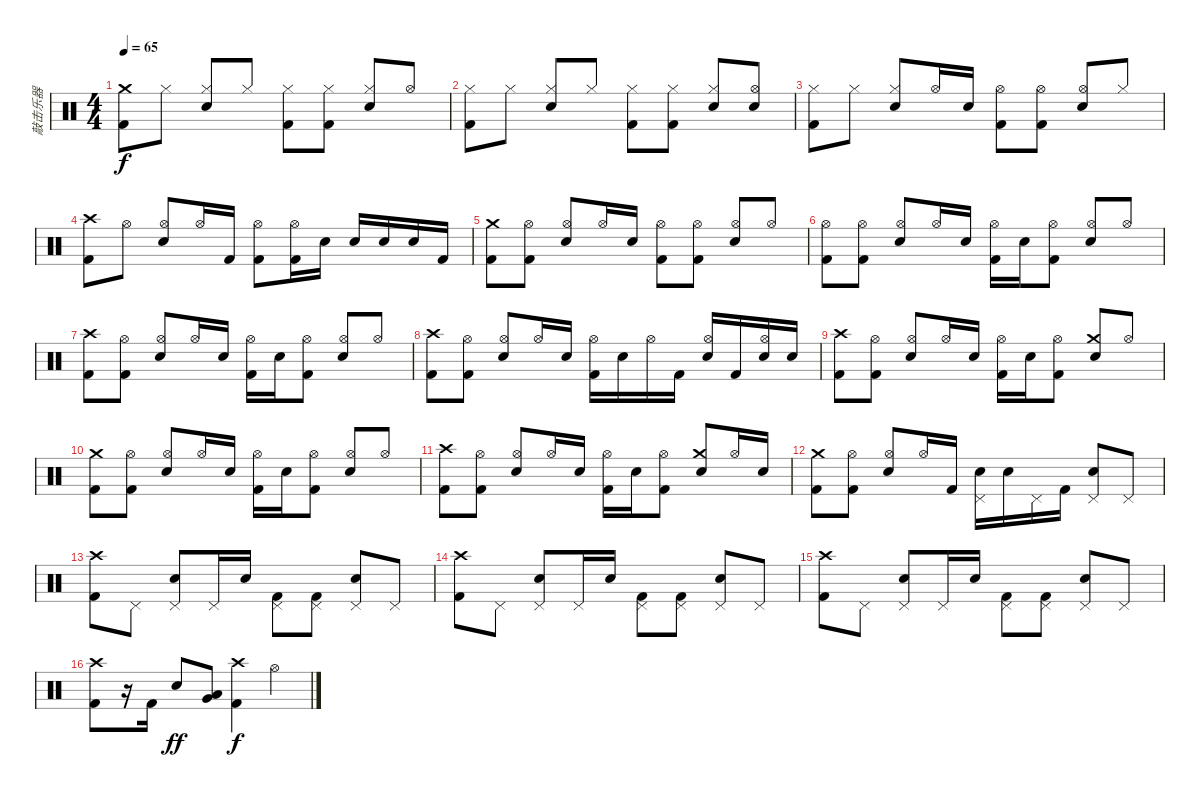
\track ("敲击乐器" "敲击乐器") {instrument percussion}
\staff {score}
\articulation defaults
\ts (4 4)
\tempo 65
\clef neutral
\ks c
("Crash medium (hit)" "Kick (hit) 2").8{dy f beam Down} "Hi-Hat (closed)".8{beam Down} ("Hi-Hat (closed)" "Electric Snare (hit)").8{beam Up} "Hi-Hat (closed)".8{beam Up} ("Hi-Hat (closed)" "Kick (hit) 2").8{beam Down} ("Hi-Hat (closed)" "Kick (hit) 2").8{beam Down} ("Hi-Hat (closed)" "Electric Snare (hit)").8{beam Up} "Hi-Hat (open)".8{beam Up} |
("Hi-Hat (closed)" "Kick (hit) 2").8{beam Down} "Hi-Hat (closed)".8{beam Down} ("Hi-Hat (closed)" "Electric Snare (hit)").8{beam Up} "Hi-Hat (closed)".8{beam Up} ("Hi-Hat (closed)" "Kick (hit) 2").8{beam Down} ("Hi-Hat (closed)" "Kick (hit) 2").8{beam Down} ("Hi-Hat (closed)" "Electric Snare (hit)").8{beam Up} ("Hi-Hat (open)" "Electric Snare (hit)").8{beam Up} |
("Hi-Hat (closed)" "Kick (hit) 2").8{beam Down} "Hi-Hat (closed)".8{beam Down} ("Hi-Hat (closed)" "Electric Snare (hit)").8{beam Up} "Hi-Hat (open)".16{beam Up} "Electric Snare (hit)".16{beam Up} ("Hi-Hat (open)" "Kick (hit) 2").8 ("Hi-Hat (open)" "Kick (hit) 2").8 ("Hi-Hat (open)" "Electric Snare (hit)").8{beam Up} "Hi-Hat (closed)".8{beam Up} |
("Crash high (hit)" "Kick (hit) 2").8{beam Down} "Hi-Hat (open)".8{beam Down} ("Hi-Hat (open)" "Electric Snare (hit)").8{beam Up} "Hi-Hat (open)".16{beam Up} "Kick (hit) 2".16{beam Up} ("Hi-Hat (open)" "Kick (hit) 2").8{beam Down} ("Hi-Hat (open)" "Kick (hit) 2").16{beam Down} "Electric Snare (hit)".16{beam Down} "Electric Snare (hit)".16{beam Up} "Electric Snare (hit)".16{beam Up} "Electric Snare (hit)".16{beam Up} "Kick (hit) 2".16{beam Up} |
("Crash medium (hit)" "Kick (hit) 2").8 ("Hi-Hat (open)" "Kick (hit) 2").8 ("Hi-Hat (open)" "Electric Snare (hit)").8{beam Up} "Hi-Hat (open)".16{beam Up} "Electric Snare (hit)".16{beam Up} ("Hi-Hat (open)" "Kick (hit) 2").8 ("Hi-Hat (open)" "Kick (hit) 2").8 ("Hi-Hat (open)" "Electric Snare (hit)").8{beam Up} "Hi-Hat (open)".8{beam Up} |
("Hi-Hat (open)" "Kick (hit) 2").8 ("Hi-Hat (open)" "Kick (hit) 2").8 ("Hi-Hat (open)" "Electric Snare (hit)").8{beam Up} "Hi-Hat (open)".16{beam Up} "Electric Snare (hit)".16{beam Up} ("Hi-Hat (open)" "Kick (hit) 2").16{beam Down} "Electric Snare (hit)".16{beam Down} ("Hi-Hat (open)" "Kick (hit) 2").8{beam Down} ("Hi-Hat (open)" "Electric Snare (hit)").8{beam Up} "Hi-Hat (open)".8{beam Up} |
("Crash high (hit)" "Kick (hit) 2").8 ("Hi-Hat (open)" "Kick (hit) 2").8 ("Hi-Hat (open)" "Electric Snare (hit)").8{beam Up} "Hi-Hat (open)".16{beam Up} "Electric Snare (hit)".16{beam Up} ("Hi-Hat (open)" "Kick (hit) 2").16{beam Down} "Electric Snare (hit)".16{beam Down} ("Hi-Hat (open)" "Kick (hit) 2").8{beam Down} ("Hi-Hat (open)" "Electric Snare (hit)").8{beam Up} "Hi-Hat (open)".8{beam Up} |
("Crash high (hit)" "Kick (hit) 2").8 ("Hi-Hat (open)" "Kick (hit) 2").8 ("Hi-Hat (open)" "Electric Snare (hit)").8{beam Up} "Hi-Hat (open)".16{beam Up} "Electric Snare (hit)".16{beam Up} ("Hi-Hat (open)" "Kick (hit) 2").16 "Electric Snare (hit)".16 "Hi-Hat (open)".16 "Kick (hit) 2".16 ("Hi-Hat (open)" "Electric Snare (hit)").16{beam Up} "Kick (hit) 2".16{beam Up} ("Hi-Hat (open)" "Electric Snare (hit)").16{beam Up} "Electric Snare (hit)".16{beam Up} |
("Crash high (hit)" "Kick (hit) 2").8 ("Hi-Hat (open)" "Kick (hit) 2").8 ("Hi-Hat (open)" "Electric Snare (hit)").8{beam Up} "Hi-Hat (open)".16{beam Up} "Electric Snare (hit)".16{beam Up} ("Hi-Hat (open)" "Kick (hit) 2").16{beam Down} "Electric Snare (hit)".16{beam Down} ("Hi-Hat (open)" "Kick (hit) 2").8{beam Down} ("Crash medium (hit)" "Electric Snare (hit)").8{beam Up} "Hi-Hat (open)".8{beam Up} |
("Crash medium (hit)" "Kick (hit) 2").8 ("Hi-Hat (open)" "Kick (hit) 2").8 ("Hi-Hat (open)" "Electric Snare (hit)").8{beam Up} "Hi-Hat (open)".16{beam Up} "Electric Snare (hit)".16{beam Up} ("Hi-Hat (open)" "Kick (hit) 2").16{beam Down} "Electric Snare (hit)".16{beam Down} ("Hi-Hat (open)" "Kick (hit) 2").8{beam Down} ("Hi-Hat (open)" "Electric Snare (hit)").8{beam Up} "Hi-Hat (open)".8{beam Up} |
("Crash high (hit)" "Kick (hit) 2").8 ("Hi-Hat (open)" "Kick (hit) 2").8 ("Hi-Hat (open)" "Electric Snare (hit)").8{beam Up} "Hi-Hat (open)".16{beam Up} "Electric Snare (hit)".16{beam Up} ("Hi-Hat (open)" "Kick (hit) 2").16{beam Down} "Electric Snare (hit)".16{beam Down} ("Hi-Hat (open)" "Kick (hit) 2").8{beam Down} ("Crash medium (hit)" "Electric Snare (hit)").8{beam Up} "Hi-Hat (open)".16{beam Up} "Electric Snare (hit)".16{beam Up} |
("Crash medium (hit)" "Kick (hit) 2").8 ("Hi-Hat (open)" "Kick (hit) 2").8 ("Hi-Hat (open)" "Electric Snare (hit)").8{beam Up} "Hi-Hat (open)".16{beam Up} "Kick (hit) 2".16{beam Up} ("Pedal Hi-Hat (hit)" "Electric Snare (hit)").16{beam Down} "Electric Snare (hit)".16{beam Down} "Pedal Hi-Hat (hit)".16{beam Down} "Kick (hit) 2".16{beam Down} ("Pedal Hi-Hat (hit)" "Electric Snare (hit)").8 "Pedal Hi-Hat (hit)".8 |
("Crash high (hit)" "Kick (hit) 2").8 "Pedal Hi-Hat (hit)".8 ("Pedal Hi-Hat (hit)" "Electric Snare (hit)").8{beam Up} "Pedal Hi-Hat (hit)".16{beam Up} "Electric Snare (hit)".16{beam Up} ("Pedal Hi-Hat (hit)" "Kick (hit) 2").8{beam Down} ("Pedal Hi-Hat (hit)" "Kick (hit) 2").8{beam Down} ("Pedal Hi-Hat (hit)" "Electric Snare (hit)").8 "Pedal Hi-Hat (hit)".8 |
("Crash high (hit)" "Kick (hit) 2").8 "Pedal Hi-Hat (hit)".8 ("Pedal Hi-Hat (hit)" "Electric Snare (hit)").8{beam Up} "Pedal Hi-Hat (hit)".16{beam Up} "Electric Snare (hit)".16{beam Up} ("Pedal Hi-Hat (hit)" "Kick (hit) 2").8{beam Down} ("Pedal Hi-Hat (hit)" "Kick (hit) 2").8{beam Down} ("Pedal Hi-Hat (hit)" "Electric Snare (hit)").8 "Pedal Hi-Hat (hit)".8 |
("Crash high (hit)" "Kick (hit) 2").8 "Pedal Hi-Hat (hit)".8 ("Pedal Hi-Hat (hit)" "Electric Snare (hit)").8{beam Up} "Pedal Hi-Hat (hit)".16{beam Up} "Electric Snare (hit)".16{beam Up} ("Pedal Hi-Hat (hit)" "Kick (hit) 2").8{beam Down} ("Pedal Hi-Hat (hit)" "Kick (hit) 2").8{beam Down} ("Pedal Hi-Hat (hit)" "Electric Snare (hit)").8 "Pedal Hi-Hat (hit)".8 |
("Crash high (hit)" "Kick (hit) 2").8{beam Down} r.16 "Kick (hit) 2".16{beam Down} "Electric Snare (hit)".8{dy ff} ("Low Floor Tom (hit)" "Very Low Tom (hit)").8 ("Crash high (hit)" "Kick (hit) 2").4{dy f} "Hi-Hat (open)".4
